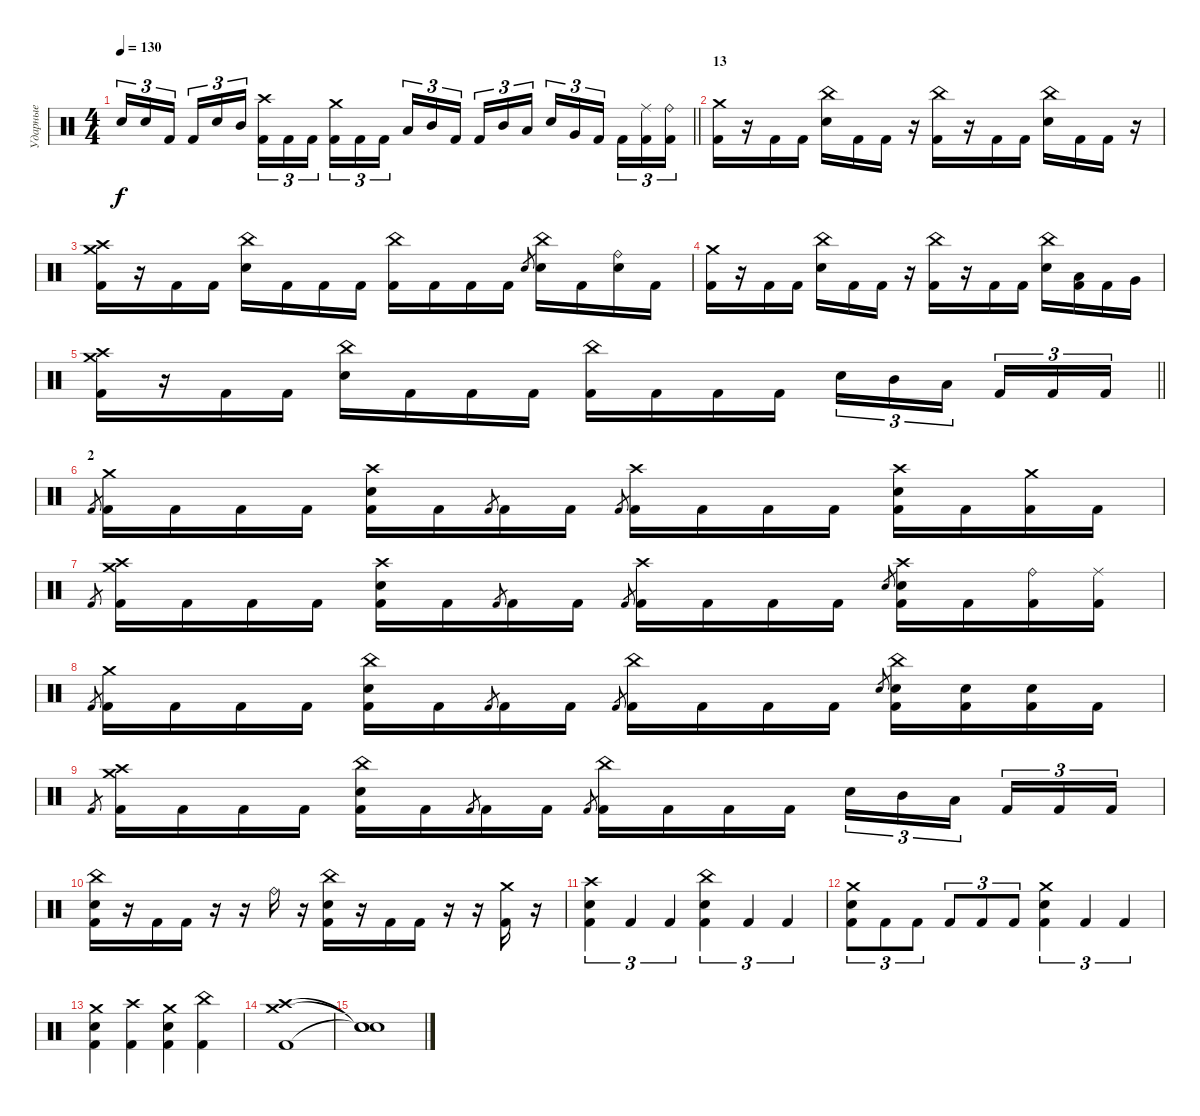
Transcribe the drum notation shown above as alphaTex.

\track ("Ударные" "Ударные") {instrument percussion}
\staff {score}
\articulation defaults
\ts (4 4)
\tempo 130
\clef neutral
\barLineRight lightlight
\ks c "Electric Snare (hit)".16{tu (3 2) dy f} "Electric Snare (hit)".16{tu (3 2)} "Kick (hit) 2".16{tu (3 2) beam splitsecondary} "Kick (hit) 2".16{tu (3 2)} "Electric Snare (hit)".16{tu (3 2)} "Mid Tom (hit)".16{tu (3 2)}
("Crash high (hit)" "Kick (hit) 2").16{tu (3 2)} "Kick (hit) 2".16{tu (3 2)} "Kick (hit) 2".16{tu (3 2) beam splitsecondary} ("Crash medium (hit)" "Kick (hit) 2").16{tu (3 2)} "Kick (hit) 2".16{tu (3 2)} "Kick (hit) 2".16{tu (3 2)} "Low Tom (hit)".16{tu (3 2)} "Mid Tom (hit)".16{tu (3 2)} "Kick (hit) 2".16{tu (3 2) beam splitsecondary} "Kick (hit) 2".16{tu (3 2)} "Mid Tom (hit)".16{tu (3 2)} "Low Tom (hit)".16{tu (3 2)} "Electric Snare (hit)".16{tu (3 2)} "Very Low Tom (hit)".16{tu (3 2)} "Kick (hit) 2".16{tu (3 2) beam splitsecondary} "Kick (hit) 2".16{tu (3 2)} ("Ride (middle)" "Kick (hit) 2").16{tu (3 2)} ("Ride (bell)" "Kick (hit) 2").16{tu (3 2)} |
\section ("" "13")
("Crash medium (hit)" "Kick (hit) 2").16 r.16 "Kick (hit) 2".16 "Kick (hit) 2".16 ("China (hit)" "Electric Snare (hit)").16 "Kick (hit) 2".16 "Kick (hit) 2".16 r.16 ("China (hit)" "Kick (hit) 2").16 r.16 "Kick (hit) 2".16 "Kick (hit) 2".16 ("China (hit)" "Electric Snare (hit)").16 "Kick (hit) 2".16 "Kick (hit) 2".16 r.16 |
("Crash medium (hit)" "Crash high (hit)" "Kick (hit) 2").16 r.16 "Kick (hit) 2".16 "Kick (hit) 2".16 ("China (hit)" "Electric Snare (hit)").16 "Kick (hit) 2".16 "Kick (hit) 2".16 "Kick (hit) 2".16 ("China (hit)" "Kick (hit) 2").16 "Kick (hit) 2".16 "Kick (hit) 2".16 "Kick (hit) 2".16 "Electric Snare (hit)".8{gr} ("China (hit)" "Electric Snare (hit)").16 "Kick (hit) 2".16 ("Ride (bell)" "Electric Snare (hit)").16 "Kick (hit) 2".16 |
("Crash medium (hit)" "Kick (hit) 2").16 r.16 "Kick (hit) 2".16 "Kick (hit) 2".16 ("China (hit)" "Electric Snare (hit)").16 "Kick (hit) 2".16 "Kick (hit) 2".16 r.16 ("China (hit)" "Kick (hit) 2").16 r.16 "Kick (hit) 2".16 "Kick (hit) 2".16 ("China (hit)" "Electric Snare (hit)").16 ("Low Tom (hit)" "Kick (hit) 2").16 "Kick (hit) 2".16 "Very Low Tom (hit)".16 |
\barLineRight lightlight
("Crash medium (hit)" "Crash high (hit)" "Kick (hit) 2").16 r.16 "Kick (hit) 2".16 "Kick (hit) 2".16 ("China (hit)" "Electric Snare (hit)").16 "Kick (hit) 2".16 "Kick (hit) 2".16 "Kick (hit) 2".16 ("China (hit)" "Kick (hit) 2").16 "Kick (hit) 2".16 "Kick (hit) 2".16 "Kick (hit) 2".16 "Electric Snare (hit)".16{tu (3 2)} "Mid Tom (hit)".16{tu (3 2)} "Low Tom (hit)".16{tu (3 2) beam splitsecondary} "Kick (hit) 2".16{tu (3 2)} "Kick (hit) 2".16{tu (3 2)} "Kick (hit) 2".16{tu (3 2)} |
\section ("" "2")
"Kick (hit) 2".8{gr} ("Crash medium (hit)" "Kick (hit) 2").16 "Kick (hit) 2".16 "Kick (hit) 2".16 "Kick (hit) 2".16 ("Crash high (hit)" "Electric Snare (hit)" "Kick (hit) 2").16 "Kick (hit) 2".16 "Kick (hit) 2".8{gr} "Kick (hit) 2".16 "Kick (hit) 2".16 "Kick (hit) 2".8{gr} ("Crash high (hit)" "Kick (hit) 2").16 "Kick (hit) 2".16 "Kick (hit) 2".16 "Kick (hit) 2".16 ("Crash high (hit)" "Electric Snare (hit)" "Kick (hit) 2").16 "Kick (hit) 2".16 ("Crash medium (hit)" "Kick (hit) 2").16 "Kick (hit) 2".16 |
"Kick (hit) 2".8{gr} ("Crash medium (hit)" "Crash high (hit)" "Kick (hit) 2").16 "Kick (hit) 2".16 "Kick (hit) 2".16 "Kick (hit) 2".16 ("Crash high (hit)" "Electric Snare (hit)" "Kick (hit) 2").16 "Kick (hit) 2".16 "Kick (hit) 2".8{gr} "Kick (hit) 2".16 "Kick (hit) 2".16 "Kick (hit) 2".8{gr} ("Crash high (hit)" "Kick (hit) 2").16 "Kick (hit) 2".16 "Kick (hit) 2".16 "Kick (hit) 2".16 "Electric Snare (hit)".8{gr} ("Crash high (hit)" "Electric Snare (hit)" "Kick (hit) 2").16 "Kick (hit) 2".16 ("Ride (bell)" "Kick (hit) 2").16 ("Ride (middle)" "Kick (hit) 2").16 |
"Kick (hit) 2".8{gr} ("Crash medium (hit)" "Kick (hit) 2").16 "Kick (hit) 2".16 "Kick (hit) 2".16 "Kick (hit) 2".16 ("China (hit)" "Electric Snare (hit)" "Kick (hit) 2").16 "Kick (hit) 2".16 "Kick (hit) 2".8{gr} "Kick (hit) 2".16 "Kick (hit) 2".16 "Kick (hit) 2".8{gr} ("China (hit)" "Kick (hit) 2").16 "Kick (hit) 2".16 "Kick (hit) 2".16 "Kick (hit) 2".16 "Electric Snare (hit)".8{gr} ("China (hit)" "Electric Snare (hit)" "Kick (hit) 2").16 ("Electric Snare (hit)" "Kick (hit) 2").16 ("Electric Snare (hit)" "Kick (hit) 2").16 "Kick (hit) 2".16 |
"Kick (hit) 2".8{gr} ("Crash medium (hit)" "Crash high (hit)" "Kick (hit) 2").16 "Kick (hit) 2".16 "Kick (hit) 2".16 "Kick (hit) 2".16 ("China (hit)" "Electric Snare (hit)" "Kick (hit) 2").16 "Kick (hit) 2".16 "Kick (hit) 2".8{gr} "Kick (hit) 2".16 "Kick (hit) 2".16 "Kick (hit) 2".8{gr} ("China (hit)" "Kick (hit) 2").16 "Kick (hit) 2".16 "Kick (hit) 2".16 "Kick (hit) 2".16 "Electric Snare (hit)".16{tu (3 2)} "Mid Tom (hit)".16{tu (3 2)} "Low Tom (hit)".16{tu (3 2) beam splitsecondary} "Kick (hit) 2".16{tu (3 2)} "Kick (hit) 2".16{tu (3 2)} "Kick (hit) 2".16{tu (3 2)} |
("China (hit)" "Electric Snare (hit)" "Kick (hit) 2").16 r.16 "Kick (hit) 2".16 "Kick (hit) 2".16 r.16 r.16 "Ride (bell)".16 r.16 ("China (hit)" "Electric Snare (hit)" "Kick (hit) 2").16 r.16 "Kick (hit) 2".16 "Kick (hit) 2".16 r.16 r.16 ("Crash medium (hit)" "Kick (hit) 2").16 r.16 |
("Crash high (hit)" "Electric Snare (hit)" "Kick (hit) 2").4{tu (3 2)} "Kick (hit) 2".4{tu (3 2)} "Kick (hit) 2".4{tu (3 2)} ("China (hit)" "Electric Snare (hit)" "Kick (hit) 2").4{tu (3 2)} "Kick (hit) 2".4{tu (3 2)} "Kick (hit) 2".4{tu (3 2)} |
("Crash medium (hit)" "Electric Snare (hit)" "Kick (hit) 2").8{tu (3 2)} "Kick (hit) 2".8{tu (3 2)} "Kick (hit) 2".8{tu (3 2)} "Kick (hit) 2".8{tu (3 2)} "Kick (hit) 2".8{tu (3 2)} "Kick (hit) 2".8{tu (3 2)} ("Crash medium (hit)" "Electric Snare (hit)" "Kick (hit) 2").4{tu (3 2)} "Kick (hit) 2".4{tu (3 2)} "Kick (hit) 2".4{tu (3 2)} |
("Crash medium (hit)" "Electric Snare (hit)" "Kick (hit) 2").4 ("Crash high (hit)" "Kick (hit) 2").4 ("Crash medium (hit)" "Electric Snare (hit)" "Kick (hit) 2").4 ("China (hit)" "Kick (hit) 2").4 |
("Crash medium (hit)" "Crash high (hit)" "Kick (hit) 2").1 |
("Snare (hit)"{t} "Snare (hit)"{t} "Snare (hit)"{t}).1
